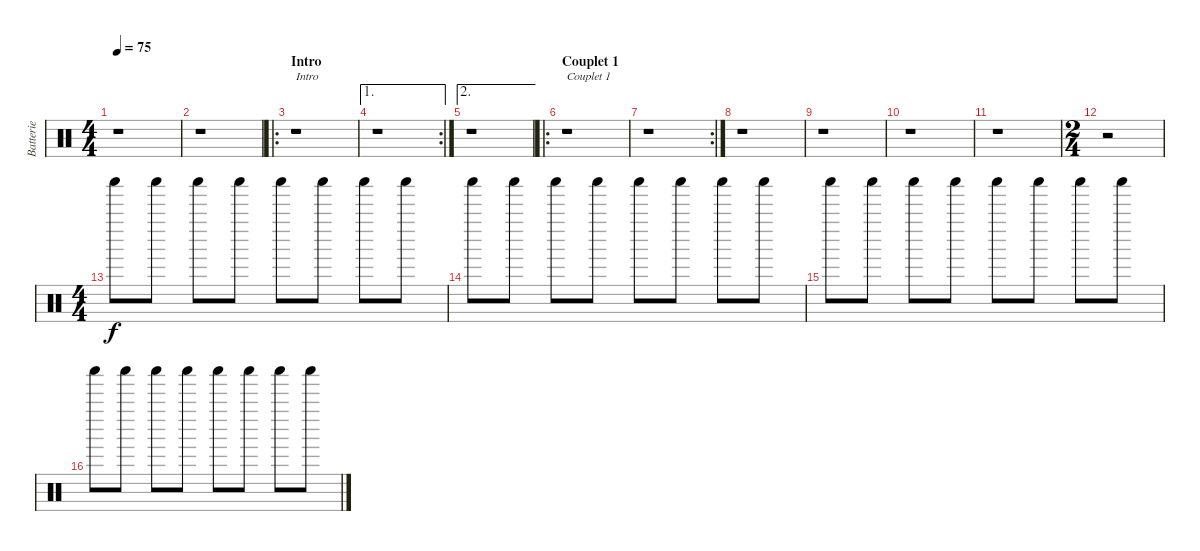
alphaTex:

\track ("Batterie" "Batterie") {instrument percussion}
\staff {score}
\articulation defaults
\ts (4 4)
\tempo 75
\clef neutral
\ks c
r.1{dy f} |
r.1 |
\ro
\section ("" "Intro")
r.1{txt "Intro"} |
\ae 1
\rc 2
r.1 |
\ae 2
r.1 |
\ro
\section ("" "Couplet 1")
r.1{txt "Couplet 1"} |
\rc 2
r.1 |
r.1 |
r.1 |
r.1 |
r.1 |
\ts (2 4)
r.2 |
\ts (4 4)
"Shaker (hit)".8 "Shaker (hit)".8 "Shaker (hit)".8 "Shaker (hit)".8 "Shaker (hit)".8 "Shaker (hit)".8 "Shaker (hit)".8 "Shaker (hit)".8 |
"Shaker (hit)".8 "Shaker (hit)".8 "Shaker (hit)".8 "Shaker (hit)".8 "Shaker (hit)".8 "Shaker (hit)".8 "Shaker (hit)".8 "Shaker (hit)".8 |
"Shaker (hit)".8 "Shaker (hit)".8 "Shaker (hit)".8 "Shaker (hit)".8 "Shaker (hit)".8 "Shaker (hit)".8 "Shaker (hit)".8 "Shaker (hit)".8 |
"Shaker (hit)".8 "Shaker (hit)".8 "Shaker (hit)".8 "Shaker (hit)".8 "Shaker (hit)".8 "Shaker (hit)".8 "Shaker (hit)".8 "Shaker (hit)".8
